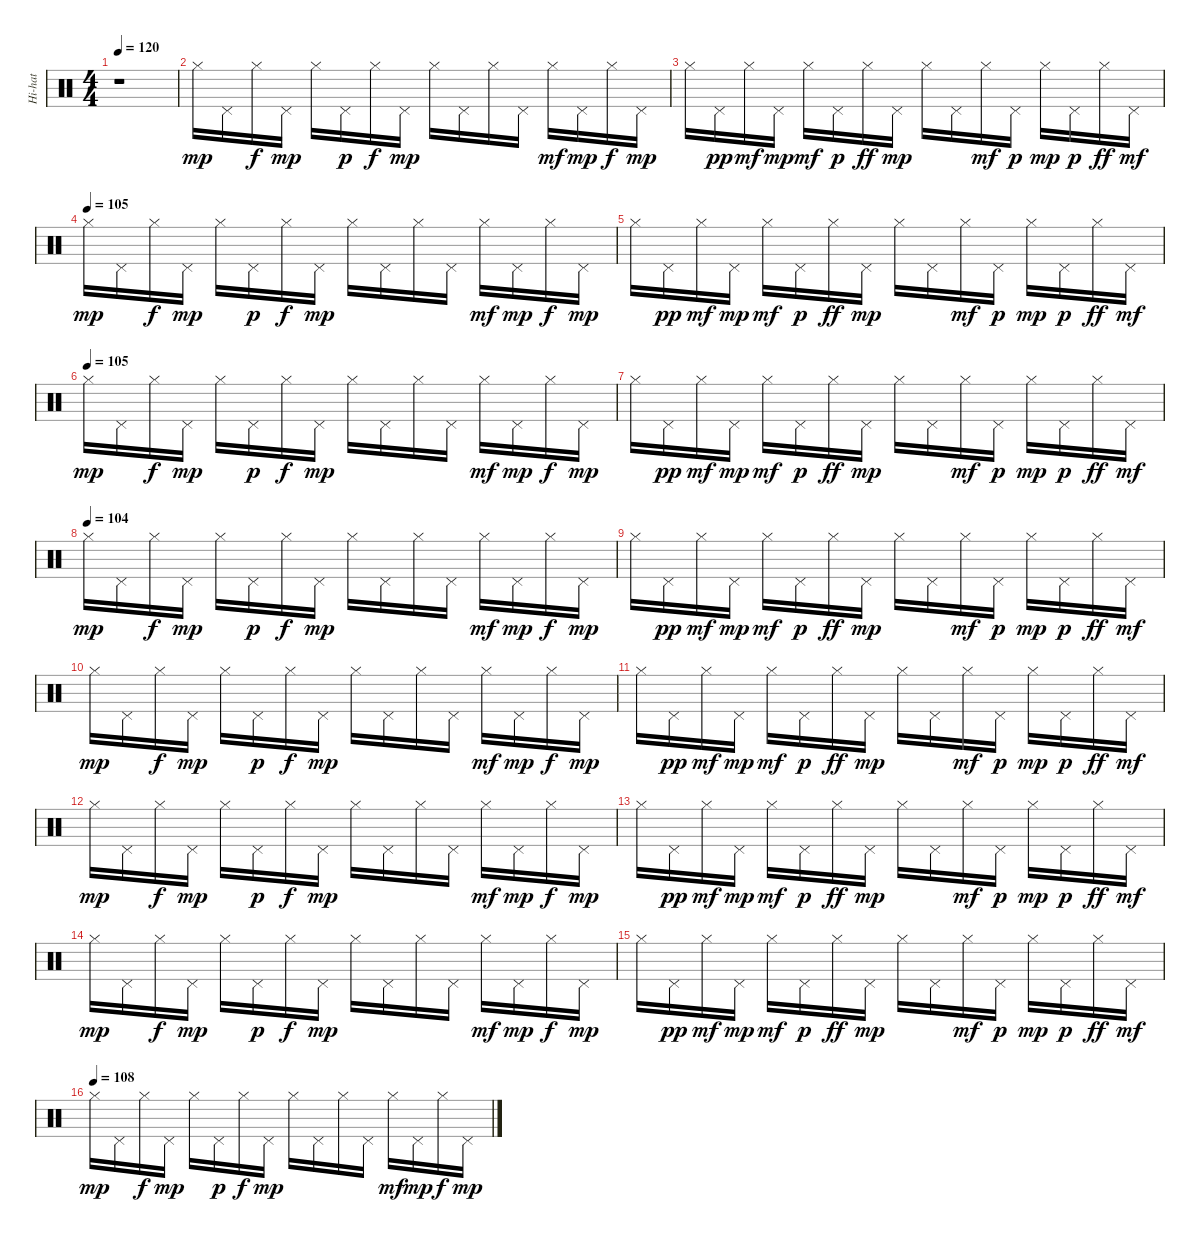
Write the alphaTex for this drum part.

\track ("Hi-hat" "Hi-hat") {instrument percussion}
\staff {score}
\articulation defaults
\ts (4 4)
\tempo 120
\clef neutral
\ks c
r.1{dy mp} |
"Hi-Hat (closed)".16 "Pedal Hi-Hat (hit)".16 "Hi-Hat (closed)".16{dy f} "Pedal Hi-Hat (hit)".16{dy mp} "Hi-Hat (closed)".16 "Pedal Hi-Hat (hit)".16{dy p} "Hi-Hat (closed)".16{dy f} "Pedal Hi-Hat (hit)".16{dy mp} "Hi-Hat (closed)".16 "Pedal Hi-Hat (hit)".16 "Hi-Hat (closed)".16 "Pedal Hi-Hat (hit)".16 "Hi-Hat (closed)".16{dy mf} "Pedal Hi-Hat (hit)".16{dy mp} "Hi-Hat (closed)".16{dy f} "Pedal Hi-Hat (hit)".16{dy mp} |
"Hi-Hat (closed)".16 "Pedal Hi-Hat (hit)".16{dy pp} "Hi-Hat (closed)".16{dy mf} "Pedal Hi-Hat (hit)".16{dy mp} "Hi-Hat (closed)".16{dy mf} "Pedal Hi-Hat (hit)".16{dy p} "Hi-Hat (closed)".16{dy ff} "Pedal Hi-Hat (hit)".16{dy mp} "Hi-Hat (closed)".16 "Pedal Hi-Hat (hit)".16 "Hi-Hat (closed)".16{dy mf} "Pedal Hi-Hat (hit)".16{dy p} "Hi-Hat (closed)".16{dy mp} "Pedal Hi-Hat (hit)".16{dy p} "Hi-Hat (closed)".16{dy ff} "Pedal Hi-Hat (hit)".16{dy mf} |
\tempo (105)
"Hi-Hat (closed)".16{dy mp} "Pedal Hi-Hat (hit)".16 "Hi-Hat (closed)".16{dy f} "Pedal Hi-Hat (hit)".16{dy mp} "Hi-Hat (closed)".16 "Pedal Hi-Hat (hit)".16{dy p} "Hi-Hat (closed)".16{dy f} "Pedal Hi-Hat (hit)".16{dy mp} "Hi-Hat (closed)".16 "Pedal Hi-Hat (hit)".16 "Hi-Hat (closed)".16 "Pedal Hi-Hat (hit)".16 "Hi-Hat (closed)".16{dy mf} "Pedal Hi-Hat (hit)".16{dy mp} "Hi-Hat (closed)".16{dy f} "Pedal Hi-Hat (hit)".16{dy mp} |
"Hi-Hat (closed)".16 "Pedal Hi-Hat (hit)".16{dy pp} "Hi-Hat (closed)".16{dy mf} "Pedal Hi-Hat (hit)".16{dy mp} "Hi-Hat (closed)".16{dy mf} "Pedal Hi-Hat (hit)".16{dy p} "Hi-Hat (closed)".16{dy ff} "Pedal Hi-Hat (hit)".16{dy mp} "Hi-Hat (closed)".16 "Pedal Hi-Hat (hit)".16 "Hi-Hat (closed)".16{dy mf} "Pedal Hi-Hat (hit)".16{dy p} "Hi-Hat (closed)".16{dy mp} "Pedal Hi-Hat (hit)".16{dy p} "Hi-Hat (closed)".16{dy ff} "Pedal Hi-Hat (hit)".16{dy mf} |
\tempo (105)
"Hi-Hat (closed)".16{dy mp} "Pedal Hi-Hat (hit)".16 "Hi-Hat (closed)".16{dy f} "Pedal Hi-Hat (hit)".16{dy mp} "Hi-Hat (closed)".16 "Pedal Hi-Hat (hit)".16{dy p} "Hi-Hat (closed)".16{dy f} "Pedal Hi-Hat (hit)".16{dy mp} "Hi-Hat (closed)".16 "Pedal Hi-Hat (hit)".16 "Hi-Hat (closed)".16 "Pedal Hi-Hat (hit)".16 "Hi-Hat (closed)".16{dy mf} "Pedal Hi-Hat (hit)".16{dy mp} "Hi-Hat (closed)".16{dy f} "Pedal Hi-Hat (hit)".16{dy mp} |
"Hi-Hat (closed)".16 "Pedal Hi-Hat (hit)".16{dy pp} "Hi-Hat (closed)".16{dy mf} "Pedal Hi-Hat (hit)".16{dy mp} "Hi-Hat (closed)".16{dy mf} "Pedal Hi-Hat (hit)".16{dy p} "Hi-Hat (closed)".16{dy ff} "Pedal Hi-Hat (hit)".16{dy mp} "Hi-Hat (closed)".16 "Pedal Hi-Hat (hit)".16 "Hi-Hat (closed)".16{dy mf} "Pedal Hi-Hat (hit)".16{dy p} "Hi-Hat (closed)".16{dy mp} "Pedal Hi-Hat (hit)".16{dy p} "Hi-Hat (closed)".16{dy ff} "Pedal Hi-Hat (hit)".16{dy mf} |
\tempo (104)
"Hi-Hat (closed)".16{dy mp} "Pedal Hi-Hat (hit)".16 "Hi-Hat (closed)".16{dy f} "Pedal Hi-Hat (hit)".16{dy mp} "Hi-Hat (closed)".16 "Pedal Hi-Hat (hit)".16{dy p} "Hi-Hat (closed)".16{dy f} "Pedal Hi-Hat (hit)".16{dy mp} "Hi-Hat (closed)".16 "Pedal Hi-Hat (hit)".16 "Hi-Hat (closed)".16 "Pedal Hi-Hat (hit)".16 "Hi-Hat (closed)".16{dy mf} "Pedal Hi-Hat (hit)".16{dy mp} "Hi-Hat (closed)".16{dy f} "Pedal Hi-Hat (hit)".16{dy mp} |
"Hi-Hat (closed)".16 "Pedal Hi-Hat (hit)".16{dy pp} "Hi-Hat (closed)".16{dy mf} "Pedal Hi-Hat (hit)".16{dy mp} "Hi-Hat (closed)".16{dy mf} "Pedal Hi-Hat (hit)".16{dy p} "Hi-Hat (closed)".16{dy ff} "Pedal Hi-Hat (hit)".16{dy mp} "Hi-Hat (closed)".16 "Pedal Hi-Hat (hit)".16 "Hi-Hat (closed)".16{dy mf} "Pedal Hi-Hat (hit)".16{dy p} "Hi-Hat (closed)".16{dy mp} "Pedal Hi-Hat (hit)".16{dy p} "Hi-Hat (closed)".16{dy ff} "Pedal Hi-Hat (hit)".16{dy mf} |
"Hi-Hat (closed)".16{dy mp} "Pedal Hi-Hat (hit)".16 "Hi-Hat (closed)".16{dy f} "Pedal Hi-Hat (hit)".16{dy mp} "Hi-Hat (closed)".16 "Pedal Hi-Hat (hit)".16{dy p} "Hi-Hat (closed)".16{dy f} "Pedal Hi-Hat (hit)".16{dy mp} "Hi-Hat (closed)".16 "Pedal Hi-Hat (hit)".16 "Hi-Hat (closed)".16 "Pedal Hi-Hat (hit)".16 "Hi-Hat (closed)".16{dy mf} "Pedal Hi-Hat (hit)".16{dy mp} "Hi-Hat (closed)".16{dy f} "Pedal Hi-Hat (hit)".16{dy mp} |
"Hi-Hat (closed)".16 "Pedal Hi-Hat (hit)".16{dy pp} "Hi-Hat (closed)".16{dy mf} "Pedal Hi-Hat (hit)".16{dy mp} "Hi-Hat (closed)".16{dy mf} "Pedal Hi-Hat (hit)".16{dy p} "Hi-Hat (closed)".16{dy ff} "Pedal Hi-Hat (hit)".16{dy mp} "Hi-Hat (closed)".16 "Pedal Hi-Hat (hit)".16 "Hi-Hat (closed)".16{dy mf} "Pedal Hi-Hat (hit)".16{dy p} "Hi-Hat (closed)".16{dy mp} "Pedal Hi-Hat (hit)".16{dy p} "Hi-Hat (closed)".16{dy ff} "Pedal Hi-Hat (hit)".16{dy mf} |
"Hi-Hat (closed)".16{dy mp} "Pedal Hi-Hat (hit)".16 "Hi-Hat (closed)".16{dy f} "Pedal Hi-Hat (hit)".16{dy mp} "Hi-Hat (closed)".16 "Pedal Hi-Hat (hit)".16{dy p} "Hi-Hat (closed)".16{dy f} "Pedal Hi-Hat (hit)".16{dy mp} "Hi-Hat (closed)".16 "Pedal Hi-Hat (hit)".16 "Hi-Hat (closed)".16 "Pedal Hi-Hat (hit)".16 "Hi-Hat (closed)".16{dy mf} "Pedal Hi-Hat (hit)".16{dy mp} "Hi-Hat (closed)".16{dy f} "Pedal Hi-Hat (hit)".16{dy mp} |
"Hi-Hat (closed)".16 "Pedal Hi-Hat (hit)".16{dy pp} "Hi-Hat (closed)".16{dy mf} "Pedal Hi-Hat (hit)".16{dy mp} "Hi-Hat (closed)".16{dy mf} "Pedal Hi-Hat (hit)".16{dy p} "Hi-Hat (closed)".16{dy ff} "Pedal Hi-Hat (hit)".16{dy mp} "Hi-Hat (closed)".16 "Pedal Hi-Hat (hit)".16 "Hi-Hat (closed)".16{dy mf} "Pedal Hi-Hat (hit)".16{dy p} "Hi-Hat (closed)".16{dy mp} "Pedal Hi-Hat (hit)".16{dy p} "Hi-Hat (closed)".16{dy ff} "Pedal Hi-Hat (hit)".16{dy mf} |
"Hi-Hat (closed)".16{dy mp} "Pedal Hi-Hat (hit)".16 "Hi-Hat (closed)".16{dy f} "Pedal Hi-Hat (hit)".16{dy mp} "Hi-Hat (closed)".16 "Pedal Hi-Hat (hit)".16{dy p} "Hi-Hat (closed)".16{dy f} "Pedal Hi-Hat (hit)".16{dy mp} "Hi-Hat (closed)".16 "Pedal Hi-Hat (hit)".16 "Hi-Hat (closed)".16 "Pedal Hi-Hat (hit)".16 "Hi-Hat (closed)".16{dy mf} "Pedal Hi-Hat (hit)".16{dy mp} "Hi-Hat (closed)".16{dy f} "Pedal Hi-Hat (hit)".16{dy mp} |
"Hi-Hat (closed)".16 "Pedal Hi-Hat (hit)".16{dy pp} "Hi-Hat (closed)".16{dy mf} "Pedal Hi-Hat (hit)".16{dy mp} "Hi-Hat (closed)".16{dy mf} "Pedal Hi-Hat (hit)".16{dy p} "Hi-Hat (closed)".16{dy ff} "Pedal Hi-Hat (hit)".16{dy mp} "Hi-Hat (closed)".16 "Pedal Hi-Hat (hit)".16 "Hi-Hat (closed)".16{dy mf} "Pedal Hi-Hat (hit)".16{dy p} "Hi-Hat (closed)".16{dy mp} "Pedal Hi-Hat (hit)".16{dy p} "Hi-Hat (closed)".16{dy ff} "Pedal Hi-Hat (hit)".16{dy mf} |
\tempo (108)
"Hi-Hat (closed)".16{dy mp} "Pedal Hi-Hat (hit)".16 "Hi-Hat (closed)".16{dy f} "Pedal Hi-Hat (hit)".16{dy mp} "Hi-Hat (closed)".16 "Pedal Hi-Hat (hit)".16{dy p} "Hi-Hat (closed)".16{dy f} "Pedal Hi-Hat (hit)".16{dy mp} "Hi-Hat (closed)".16 "Pedal Hi-Hat (hit)".16 "Hi-Hat (closed)".16 "Pedal Hi-Hat (hit)".16 "Hi-Hat (closed)".16{dy mf} "Pedal Hi-Hat (hit)".16{dy mp} "Hi-Hat (closed)".16{dy f} "Pedal Hi-Hat (hit)".16{dy mp}
